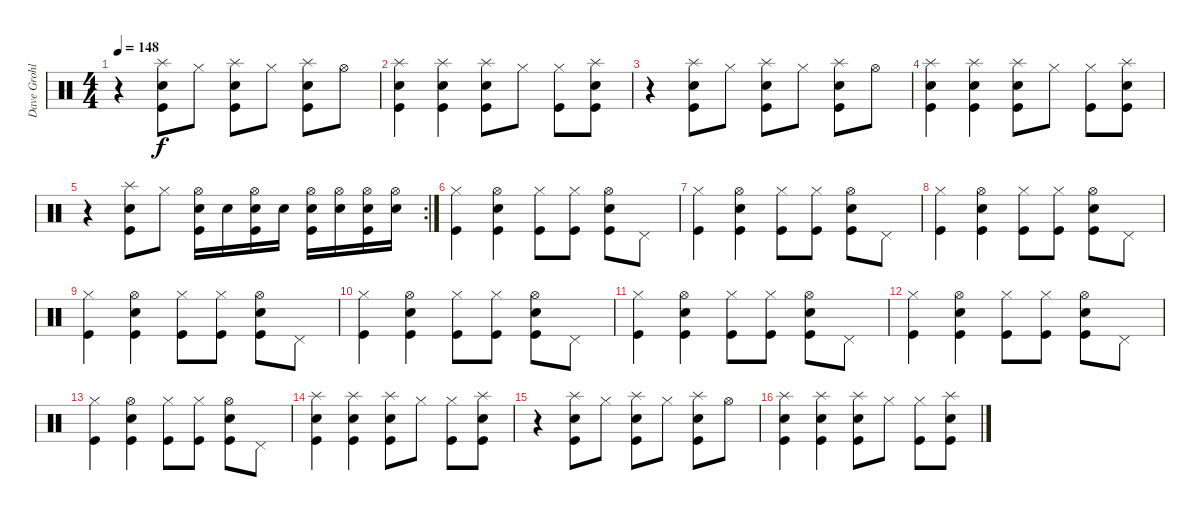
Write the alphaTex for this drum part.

\track ("Dave Grohl" "Dave Grohl") {instrument percussion}
\staff {score}
\articulation defaults
\ts (4 4)
\tempo 148
\clef neutral
\ks c
r.4{dy f} ("Splash (hit)" "Snare (hit) 2" "Kick (hit)").8 "Hi-Hat (closed)".8 ("Splash (hit)" "Snare (hit) 2" "Kick (hit)").8 "Hi-Hat (closed)".8 ("Splash (hit)" "Snare (hit) 2" "Kick (hit)").8 "Hi-Hat (open)".8 |
("Splash (hit)" "Snare (hit) 2" "Kick (hit)").4 ("Splash (hit)" "Snare (hit) 2" "Kick (hit)").4 ("Splash (hit)" "Snare (hit) 2" "Kick (hit)").8 "Hi-Hat (closed)".8 ("Hi-Hat (closed)" "Kick (hit)").8 ("Splash (hit)" "Snare (hit) 2" "Kick (hit)").8 |
r.4 ("Splash (hit)" "Snare (hit) 2" "Kick (hit)").8 "Hi-Hat (closed)".8 ("Splash (hit)" "Snare (hit) 2" "Kick (hit)").8 "Hi-Hat (closed)".8 ("Splash (hit)" "Snare (hit) 2" "Kick (hit)").8 "Hi-Hat (open)".8 |
("Splash (hit)" "Snare (hit) 2" "Kick (hit)").4 ("Splash (hit)" "Snare (hit) 2" "Kick (hit)").4 ("Splash (hit)" "Snare (hit) 2" "Kick (hit)").8 "Hi-Hat (closed)".8 ("Hi-Hat (closed)" "Kick (hit)").8 ("Splash (hit)" "Snare (hit) 2" "Kick (hit)").8 |
\rc 2
r.4 ("Splash (hit)" "Snare (hit) 2" "Kick (hit)").8 "Hi-Hat (closed)".8 ("Hi-Hat (open)" "Snare (hit) 2" "Kick (hit)").16 "Snare (hit) 2".16 ("Hi-Hat (open)" "Snare (hit) 2" "Kick (hit)").16 "Snare (hit) 2".16 ("Hi-Hat (open)" "Snare (hit) 2" "Kick (hit)").16 ("Hi-Hat (open)" "Snare (hit) 2").16 ("Hi-Hat (open)" "Snare (hit) 2" "Kick (hit)").16 ("Hi-Hat (open)" "Snare (hit) 2").16 |
("Hi-Hat (closed)" "Kick (hit)").4 ("Snare (hit) 2" "Hi-Hat (open)" "Kick (hit)").4 ("Hi-Hat (closed)" "Kick (hit)").8 ("Hi-Hat (closed)" "Kick (hit)").8 ("Snare (hit) 2" "Hi-Hat (open)" "Kick (hit)").8 "Pedal Hi-Hat (hit)".8 |
("Hi-Hat (closed)" "Kick (hit)").4 ("Snare (hit) 2" "Hi-Hat (open)" "Kick (hit)").4 ("Hi-Hat (closed)" "Kick (hit)").8 ("Hi-Hat (closed)" "Kick (hit)").8 ("Snare (hit) 2" "Hi-Hat (open)" "Kick (hit)").8 "Pedal Hi-Hat (hit)".8 |
("Hi-Hat (closed)" "Kick (hit)").4 ("Snare (hit) 2" "Hi-Hat (open)" "Kick (hit)").4 ("Hi-Hat (closed)" "Kick (hit)").8 ("Hi-Hat (closed)" "Kick (hit)").8 ("Snare (hit) 2" "Hi-Hat (open)" "Kick (hit)").8 "Pedal Hi-Hat (hit)".8 |
("Hi-Hat (closed)" "Kick (hit)").4 ("Snare (hit) 2" "Hi-Hat (open)" "Kick (hit)").4 ("Hi-Hat (closed)" "Kick (hit)").8 ("Hi-Hat (closed)" "Kick (hit)").8 ("Snare (hit) 2" "Hi-Hat (open)" "Kick (hit)").8 "Pedal Hi-Hat (hit)".8 |
("Hi-Hat (closed)" "Kick (hit)").4 ("Snare (hit) 2" "Hi-Hat (open)" "Kick (hit)").4 ("Hi-Hat (closed)" "Kick (hit)").8 ("Hi-Hat (closed)" "Kick (hit)").8 ("Snare (hit) 2" "Hi-Hat (open)" "Kick (hit)").8 "Pedal Hi-Hat (hit)".8 |
("Hi-Hat (closed)" "Kick (hit)").4 ("Snare (hit) 2" "Hi-Hat (open)" "Kick (hit)").4 ("Hi-Hat (closed)" "Kick (hit)").8 ("Hi-Hat (closed)" "Kick (hit)").8 ("Snare (hit) 2" "Hi-Hat (open)" "Kick (hit)").8 "Pedal Hi-Hat (hit)".8 |
("Hi-Hat (closed)" "Kick (hit)").4 ("Snare (hit) 2" "Hi-Hat (open)" "Kick (hit)").4 ("Hi-Hat (closed)" "Kick (hit)").8 ("Hi-Hat (closed)" "Kick (hit)").8 ("Snare (hit) 2" "Hi-Hat (open)" "Kick (hit)").8 "Pedal Hi-Hat (hit)".8 |
("Hi-Hat (closed)" "Kick (hit)").4 ("Snare (hit) 2" "Hi-Hat (open)" "Kick (hit)").4 ("Hi-Hat (closed)" "Kick (hit)").8 ("Hi-Hat (closed)" "Kick (hit)").8 ("Snare (hit) 2" "Hi-Hat (open)" "Kick (hit)").8 "Pedal Hi-Hat (hit)".8 |
("Splash (hit)" "Snare (hit) 2" "Kick (hit)").4 ("Splash (hit)" "Snare (hit) 2" "Kick (hit)").4 ("Splash (hit)" "Snare (hit) 2" "Kick (hit)").8 "Hi-Hat (closed)".8 ("Hi-Hat (closed)" "Kick (hit)").8 ("Splash (hit)" "Snare (hit) 2" "Kick (hit)").8 |
r.4 ("Splash (hit)" "Snare (hit) 2" "Kick (hit)").8 "Hi-Hat (closed)".8 ("Splash (hit)" "Snare (hit) 2" "Kick (hit)").8 "Hi-Hat (closed)".8 ("Splash (hit)" "Snare (hit) 2" "Kick (hit)").8 "Hi-Hat (open)".8 |
("Splash (hit)" "Snare (hit) 2" "Kick (hit)").4 ("Splash (hit)" "Snare (hit) 2" "Kick (hit)").4 ("Splash (hit)" "Snare (hit) 2" "Kick (hit)").8 "Hi-Hat (closed)".8 ("Hi-Hat (closed)" "Kick (hit)").8 ("Splash (hit)" "Snare (hit) 2" "Kick (hit)").8
